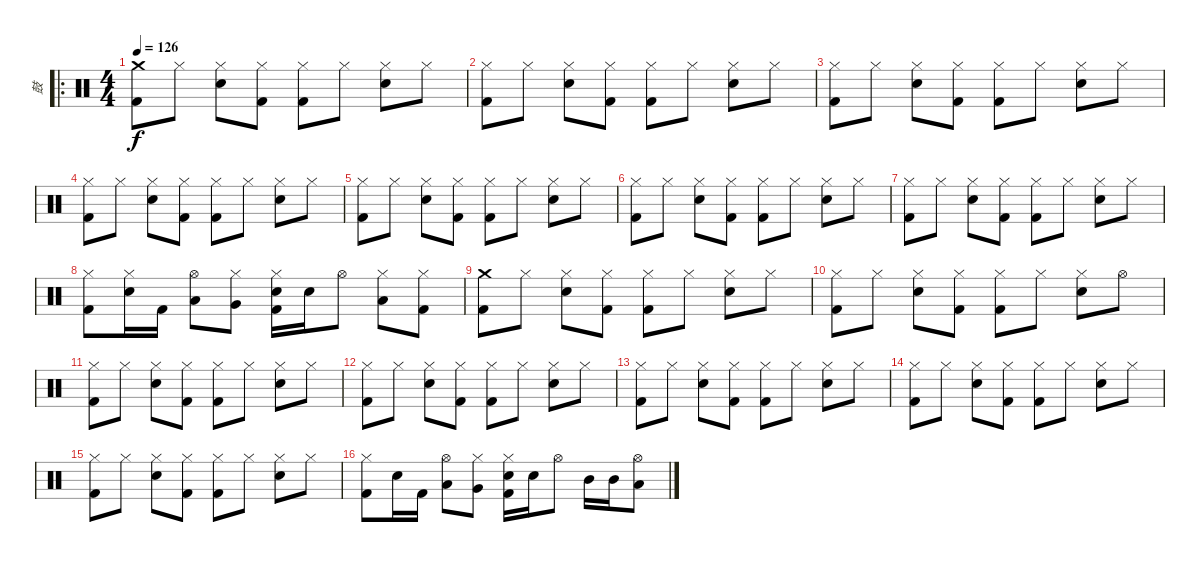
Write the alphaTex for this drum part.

\track ("鼓" "鼓") {instrument percussion}
\staff {score}
\articulation defaults
\ro
\ts (4 4)
\tempo 126
\clef neutral
\ks c
("Crash medium (hit)" "Kick (hit) 2").8{dy f} "Hi-Hat (closed)".8 ("Hi-Hat (closed)" "Electric Snare (hit)").8 ("Hi-Hat (closed)" "Kick (hit) 2").8 ("Hi-Hat (closed)" "Kick (hit) 2").8 "Hi-Hat (closed)".8 ("Hi-Hat (closed)" "Electric Snare (hit)").8 "Hi-Hat (closed)".8 |
("Hi-Hat (closed)" "Kick (hit) 2").8 "Hi-Hat (closed)".8 ("Hi-Hat (closed)" "Electric Snare (hit)").8 ("Hi-Hat (closed)" "Kick (hit) 2").8 ("Hi-Hat (closed)" "Kick (hit) 2").8 "Hi-Hat (closed)".8 ("Hi-Hat (closed)" "Electric Snare (hit)").8 "Hi-Hat (closed)".8 |
("Hi-Hat (closed)" "Kick (hit) 2").8 "Hi-Hat (closed)".8 ("Hi-Hat (closed)" "Electric Snare (hit)").8 ("Hi-Hat (closed)" "Kick (hit) 2").8 ("Hi-Hat (closed)" "Kick (hit) 2").8 "Hi-Hat (closed)".8 ("Hi-Hat (closed)" "Electric Snare (hit)").8 "Hi-Hat (closed)".8 |
("Hi-Hat (closed)" "Kick (hit) 2").8 "Hi-Hat (closed)".8 ("Hi-Hat (closed)" "Electric Snare (hit)").8 ("Hi-Hat (closed)" "Kick (hit) 2").8 ("Hi-Hat (closed)" "Kick (hit) 2").8 "Hi-Hat (closed)".8 ("Hi-Hat (closed)" "Electric Snare (hit)").8 "Hi-Hat (closed)".8 |
("Hi-Hat (closed)" "Kick (hit) 2").8 "Hi-Hat (closed)".8 ("Hi-Hat (closed)" "Electric Snare (hit)").8 ("Hi-Hat (closed)" "Kick (hit) 2").8 ("Hi-Hat (closed)" "Kick (hit) 2").8 "Hi-Hat (closed)".8 ("Hi-Hat (closed)" "Electric Snare (hit)").8 "Hi-Hat (closed)".8 |
("Hi-Hat (closed)" "Kick (hit) 2").8 "Hi-Hat (closed)".8 ("Hi-Hat (closed)" "Electric Snare (hit)").8 ("Hi-Hat (closed)" "Kick (hit) 2").8 ("Hi-Hat (closed)" "Kick (hit) 2").8 "Hi-Hat (closed)".8 ("Hi-Hat (closed)" "Electric Snare (hit)").8 "Hi-Hat (closed)".8 |
("Hi-Hat (closed)" "Kick (hit) 2").8 "Hi-Hat (closed)".8 ("Hi-Hat (closed)" "Electric Snare (hit)").8 ("Hi-Hat (closed)" "Kick (hit) 2").8 ("Hi-Hat (closed)" "Kick (hit) 2").8 "Hi-Hat (closed)".8 ("Hi-Hat (closed)" "Electric Snare (hit)").8 "Hi-Hat (closed)".8 |
("Hi-Hat (closed)" "Kick (hit) 2").8 ("Hi-Hat (closed)" "Electric Snare (hit)").16 "Kick (hit) 2".16 ("Hi-Hat (open)" "Low Tom (hit)").8 ("Hi-Hat (closed)" "Very Low Tom (hit)").8 ("Hi-Hat (closed)" "Electric Snare (hit)" "Kick (hit) 2").16 "Electric Snare (hit)".16 "Hi-Hat (open)".8 ("Hi-Hat (closed)" "Low Tom (hit)").8 ("Hi-Hat (closed)" "Kick (hit) 2").8 |
("Crash medium (hit)" "Kick (hit) 2").8 "Hi-Hat (closed)".8 ("Hi-Hat (closed)" "Electric Snare (hit)").8 ("Hi-Hat (closed)" "Kick (hit) 2").8 ("Hi-Hat (closed)" "Kick (hit) 2").8 "Hi-Hat (closed)".8 ("Hi-Hat (closed)" "Electric Snare (hit)").8 "Hi-Hat (closed)".8 |
("Hi-Hat (closed)" "Kick (hit) 2").8 "Hi-Hat (closed)".8 ("Hi-Hat (closed)" "Electric Snare (hit)").8 ("Hi-Hat (closed)" "Kick (hit) 2").8 ("Hi-Hat (closed)" "Kick (hit) 2").8 "Hi-Hat (closed)".8 ("Hi-Hat (closed)" "Electric Snare (hit)").8 "Hi-Hat (open)".8 |
("Hi-Hat (closed)" "Kick (hit) 2").8 "Hi-Hat (closed)".8 ("Hi-Hat (closed)" "Electric Snare (hit)").8 ("Hi-Hat (closed)" "Kick (hit) 2").8 ("Hi-Hat (closed)" "Kick (hit) 2").8 "Hi-Hat (closed)".8 ("Hi-Hat (closed)" "Electric Snare (hit)").8 "Hi-Hat (closed)".8 |
("Hi-Hat (closed)" "Kick (hit) 2").8 "Hi-Hat (closed)".8 ("Hi-Hat (closed)" "Electric Snare (hit)").8 ("Hi-Hat (closed)" "Kick (hit) 2").8 ("Hi-Hat (closed)" "Kick (hit) 2").8 "Hi-Hat (closed)".8 ("Hi-Hat (closed)" "Electric Snare (hit)").8 "Hi-Hat (closed)".8 |
("Hi-Hat (closed)" "Kick (hit) 2").8 "Hi-Hat (closed)".8 ("Hi-Hat (closed)" "Electric Snare (hit)").8 ("Hi-Hat (closed)" "Kick (hit) 2").8 ("Hi-Hat (closed)" "Kick (hit) 2").8 "Hi-Hat (closed)".8 ("Hi-Hat (closed)" "Electric Snare (hit)").8 "Hi-Hat (closed)".8 |
("Hi-Hat (closed)" "Kick (hit) 2").8 "Hi-Hat (closed)".8 ("Hi-Hat (closed)" "Electric Snare (hit)").8 ("Hi-Hat (closed)" "Kick (hit) 2").8 ("Hi-Hat (closed)" "Kick (hit) 2").8 "Hi-Hat (closed)".8 ("Hi-Hat (closed)" "Electric Snare (hit)").8 "Hi-Hat (closed)".8 |
("Hi-Hat (closed)" "Kick (hit) 2").8 "Hi-Hat (closed)".8 ("Hi-Hat (closed)" "Electric Snare (hit)").8 ("Hi-Hat (closed)" "Kick (hit) 2").8 ("Hi-Hat (closed)" "Kick (hit) 2").8 "Hi-Hat (closed)".8 ("Hi-Hat (closed)" "Electric Snare (hit)").8 "Hi-Hat (closed)".8 |
("Hi-Hat (closed)" "Kick (hit) 2").8 "Electric Snare (hit)".16 "Kick (hit) 2".16 ("Hi-Hat (open)" "Low Tom (hit)").8 ("Hi-Hat (closed)" "Very Low Tom (hit)").8 ("Hi-Hat (closed)" "Electric Snare (hit)" "Kick (hit) 2").16 "Electric Snare (hit)".16 "Hi-Hat (open)".8 "Mid Tom (hit)".16 "Mid Tom (hit)".16 ("Hi-Hat (open)" "Low Tom (hit)").8
